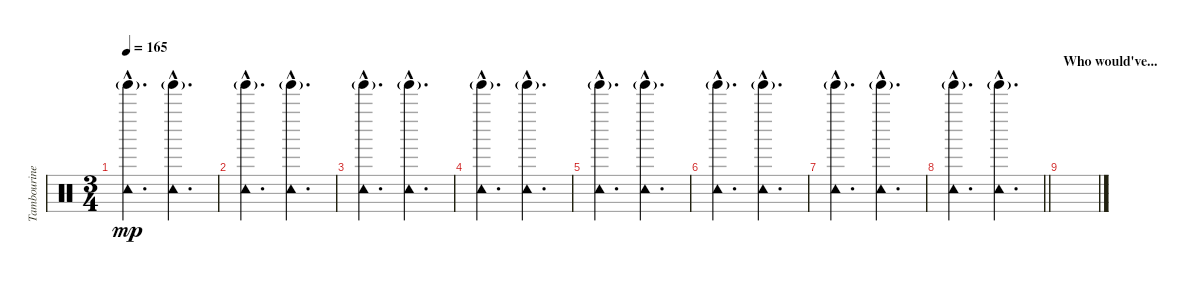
\track ("Tambourine" "Tambourine") {instrument percussion}
\staff {score}
\articulation defaults
\ts (3 4)
\tempo 165
\clef neutral
\ks c
("Tambourine (hit)"{hac} "Tinkle Bell (hit)"{g}).4{d dy mp} ("Tambourine (hit)"{hac} "Tinkle Bell (hit)"{g}).4{d} |
("Tambourine (hit)"{hac} "Tinkle Bell (hit)"{g}).4{d} ("Tambourine (hit)"{hac} "Tinkle Bell (hit)"{g}).4{d} |
("Tambourine (hit)"{hac} "Tinkle Bell (hit)"{g}).4{d} ("Tambourine (hit)"{hac} "Tinkle Bell (hit)"{g}).4{d} |
("Tambourine (hit)"{hac} "Tinkle Bell (hit)"{g}).4{d} ("Tambourine (hit)"{hac} "Tinkle Bell (hit)"{g}).4{d} |
("Tambourine (hit)"{hac} "Tinkle Bell (hit)"{g}).4{d} ("Tambourine (hit)"{hac} "Tinkle Bell (hit)"{g}).4{d} |
("Tambourine (hit)"{hac} "Tinkle Bell (hit)"{g}).4{d} ("Tambourine (hit)"{hac} "Tinkle Bell (hit)"{g}).4{d} |
("Tambourine (hit)"{hac} "Tinkle Bell (hit)"{g}).4{d volume 0} ("Tambourine (hit)"{hac} "Tinkle Bell (hit)"{g}).4{d} |
\barLineRight lightlight
("Tambourine (hit)"{hac} "Tinkle Bell (hit)"{g}).4{d} ("Tambourine (hit)"{hac} "Tinkle Bell (hit)"{g}).4{d} |
\section ("" "Who would've...")
